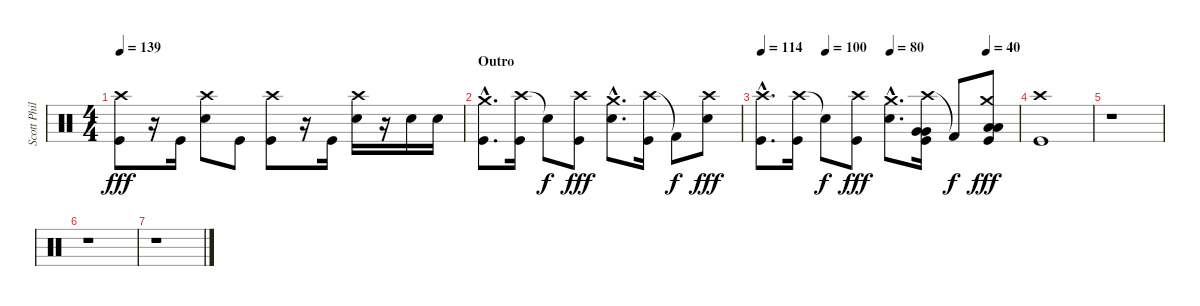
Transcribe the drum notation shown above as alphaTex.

\track ("Scott Phillips - Drums" "Scott Phil") {instrument percussion}
\staff {score}
\articulation defaults
\ts (4 4)
\tempo 139
\clef neutral
\ks c
("Crash high (hit)" "Kick (hit)").8{dy fff} r.16 "Kick (hit)".16 ("Crash high (hit)" "Electric Snare (hit)").8 "Kick (hit)".8 ("Crash high (hit)" "Kick (hit)").8 r.16 "Kick (hit)".16 ("Crash high (hit)" "Electric Snare (hit)").16 r.16 "Electric Snare (hit)".16 "Electric Snare (hit)".16 |
\section ("" "Outro")
("Crash medium (hit)"{hac} "Kick (hit)"{hac}).8{d} ("Crash high (hit)" "Kick (hit)").16 "Snare (hit)"{t}.8{dy f} ("Crash high (hit)" "Kick (hit)").8{dy fff} ("Crash medium (hit)"{hac} "Electric Snare (hit)"{hac}).8{d} ("Crash high (hit)" "Kick (hit)").16 "Kick (hit) 2"{t}.8{dy f} ("Crash high (hit)" "Electric Snare (hit)").8{dy fff} |
\tempo 114
\tempo (100 0.25)
\tempo (80 0.5)
\tempo (70 0.875)
\tempo (40 0.875)
("Crash high (hit)"{hac} "Kick (hit)"{hac}).8{d} ("Crash high (hit)" "Kick (hit)").16 "Snare (hit)"{t}.8{dy f} ("Crash high (hit)" "Kick (hit)").8{dy fff} ("Crash medium (hit)"{hac} "Electric Snare (hit)"{hac}).8{d} ("Crash high (hit)" "Very Low Tom (hit)" "Very Low Tom (hit)" "Kick (hit)").16 "Kick (hit) 2"{t}.8{dy f} ("Crash medium (hit)" "Low Floor Tom (hit)" "Low Floor Tom (hit)" "Kick (hit)").8{dy fff} |
("Crash high (hit)" "Kick (hit)").1 |
r.1 |
r.1 |
r.1
